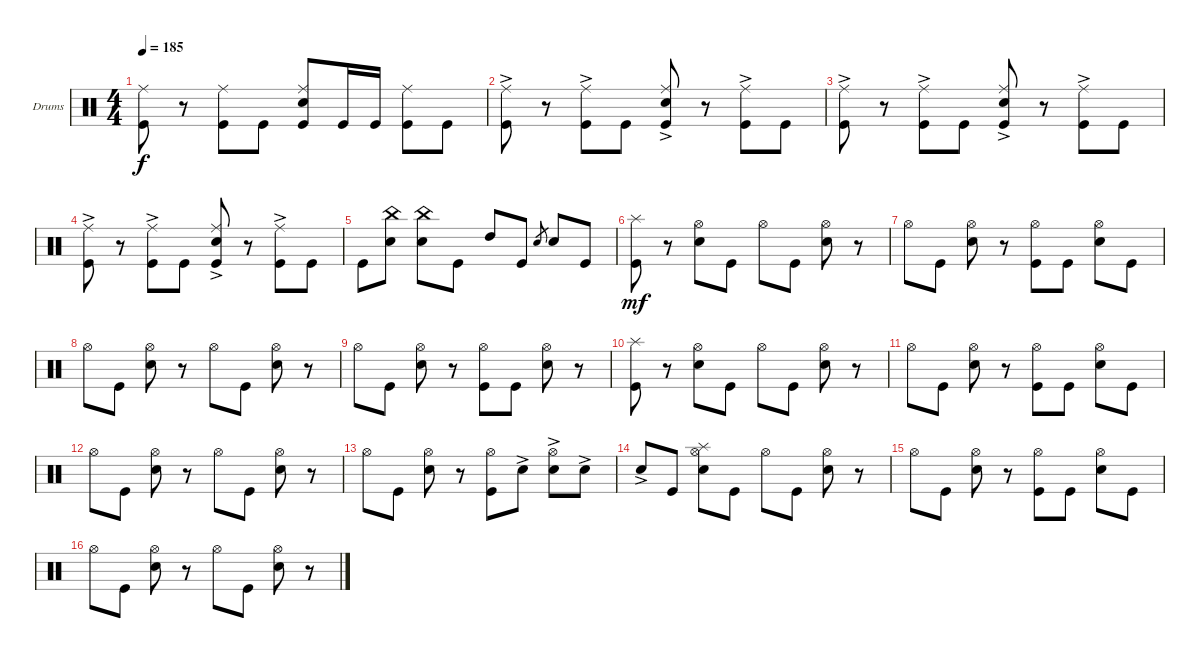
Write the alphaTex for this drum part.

\bracketExtendMode groupsimilarinstruments
\firstSystemTrackNameOrientation horizontal
\otherSystemsTrackNameOrientation horizontal
\track ("Drumkit" "Drums") {instrument percussion}
\staff {score}
\articulation defaults
\ts (4 4)
\tempo 185
\clef neutral
\ks c
("Kick (hit)" "Ride (middle)").8{dy f} r.8 ("Kick (hit)" "Ride (middle)").8 "Kick (hit)".8 ("Snare (hit) 2" "Kick (hit)" "Ride (middle)").8 "Kick (hit)".16 "Kick (hit)".16 ("Kick (hit)" "Ride (middle)").8 "Kick (hit)".8 |
("Kick (hit)" "Ride (middle)"{ac}).8 r.8 ("Kick (hit)" "Ride (middle)"{ac}).8 "Kick (hit)".8 ("Kick (hit)" "Snare (hit) 2"{ac} "Ride (middle)"{ac}).8 r.8 ("Kick (hit)" "Ride (middle)"{ac}).8 "Kick (hit)".8 |
("Kick (hit)" "Ride (middle)"{ac}).8 r.8 ("Kick (hit)" "Ride (middle)"{ac}).8 "Kick (hit)".8 ("Kick (hit)" "Snare (hit) 2"{ac} "Ride (middle)"{ac}).8 r.8 ("Kick (hit)" "Ride (middle)"{ac}).8 "Kick (hit)".8 |
("Kick (hit)" "Ride (middle)"{ac}).8 r.8 ("Kick (hit)" "Ride (middle)"{ac}).8 "Kick (hit)".8 ("Kick (hit)" "Snare (hit) 2"{ac} "Ride (middle)"{ac}).8 r.8 ("Kick (hit)" "Ride (middle)"{ac}).8 "Kick (hit)".8 |
"Kick (hit)".8 ("Snare (hit) 2" "China (hit)").8 ("Snare (hit) 2" "China (hit)").8 "Kick (hit)".8 "High Tom (hit)".8 "Kick (hit)".8 "Snare (hit) 2".8{gr} "Snare (hit) 2".8 "Kick (hit)".8 |
("Kick (hit)" "Splash (hit)").8{dy mf} r.8 ("Snare (hit) 2" "Hi-Hat (open)").8 "Kick (hit)".8 "Hi-Hat (open)".8 "Kick (hit)".8 ("Snare (hit) 2" "Hi-Hat (open)").8 r.8 |
"Hi-Hat (open)".8 "Kick (hit)".8 ("Snare (hit) 2" "Hi-Hat (open)").8 r.8 ("Kick (hit)" "Hi-Hat (open)").8 "Kick (hit)".8 ("Snare (hit) 2" "Hi-Hat (open)").8 "Kick (hit)".8 |
"Hi-Hat (open)".8 "Kick (hit)".8 ("Snare (hit) 2" "Hi-Hat (open)").8 r.8 "Hi-Hat (open)".8 "Kick (hit)".8 ("Snare (hit) 2" "Hi-Hat (open)").8 r.8 |
"Hi-Hat (open)".8 "Kick (hit)".8 ("Snare (hit) 2" "Hi-Hat (open)").8 r.8 ("Kick (hit)" "Hi-Hat (open)").8 "Kick (hit)".8 ("Snare (hit) 2" "Hi-Hat (open)").8 r.8 |
("Kick (hit)" "Splash (hit)").8 r.8 ("Snare (hit) 2" "Hi-Hat (open)").8 "Kick (hit)".8 "Hi-Hat (open)".8 "Kick (hit)".8 ("Snare (hit) 2" "Hi-Hat (open)").8 r.8 |
"Hi-Hat (open)".8 "Kick (hit)".8 ("Snare (hit) 2" "Hi-Hat (open)").8 r.8 ("Kick (hit)" "Hi-Hat (open)").8 "Kick (hit)".8 ("Snare (hit) 2" "Hi-Hat (open)").8 "Kick (hit)".8 |
"Hi-Hat (open)".8 "Kick (hit)".8 ("Snare (hit) 2" "Hi-Hat (open)").8 r.8 "Hi-Hat (open)".8 "Kick (hit)".8 ("Snare (hit) 2" "Hi-Hat (open)").8 r.8 |
"Hi-Hat (open)".8 "Kick (hit)".8 ("Snare (hit) 2" "Hi-Hat (open)").8 r.8 ("Kick (hit)" "Hi-Hat (open)").8 "Snare (hit) 2"{ac}.8 ("Snare (hit) 2"{ac} "Hi-Hat (open)").8 "Snare (hit) 2"{ac}.8 |
"Snare (hit) 2"{ac}.8 "Kick (hit)".8 ("Snare (hit) 2" "Hi-Hat (open)" "Splash (hit)").8 "Kick (hit)".8 "Hi-Hat (open)".8 "Kick (hit)".8 ("Snare (hit) 2" "Hi-Hat (open)").8 r.8 |
"Hi-Hat (open)".8 "Kick (hit)".8 ("Snare (hit) 2" "Hi-Hat (open)").8 r.8 ("Kick (hit)" "Hi-Hat (open)").8 "Kick (hit)".8 ("Snare (hit) 2" "Hi-Hat (open)").8 "Kick (hit)".8 |
"Hi-Hat (open)".8 "Kick (hit)".8 ("Snare (hit) 2" "Hi-Hat (open)").8 r.8 "Hi-Hat (open)".8 "Kick (hit)".8 ("Snare (hit) 2" "Hi-Hat (open)").8 r.8
